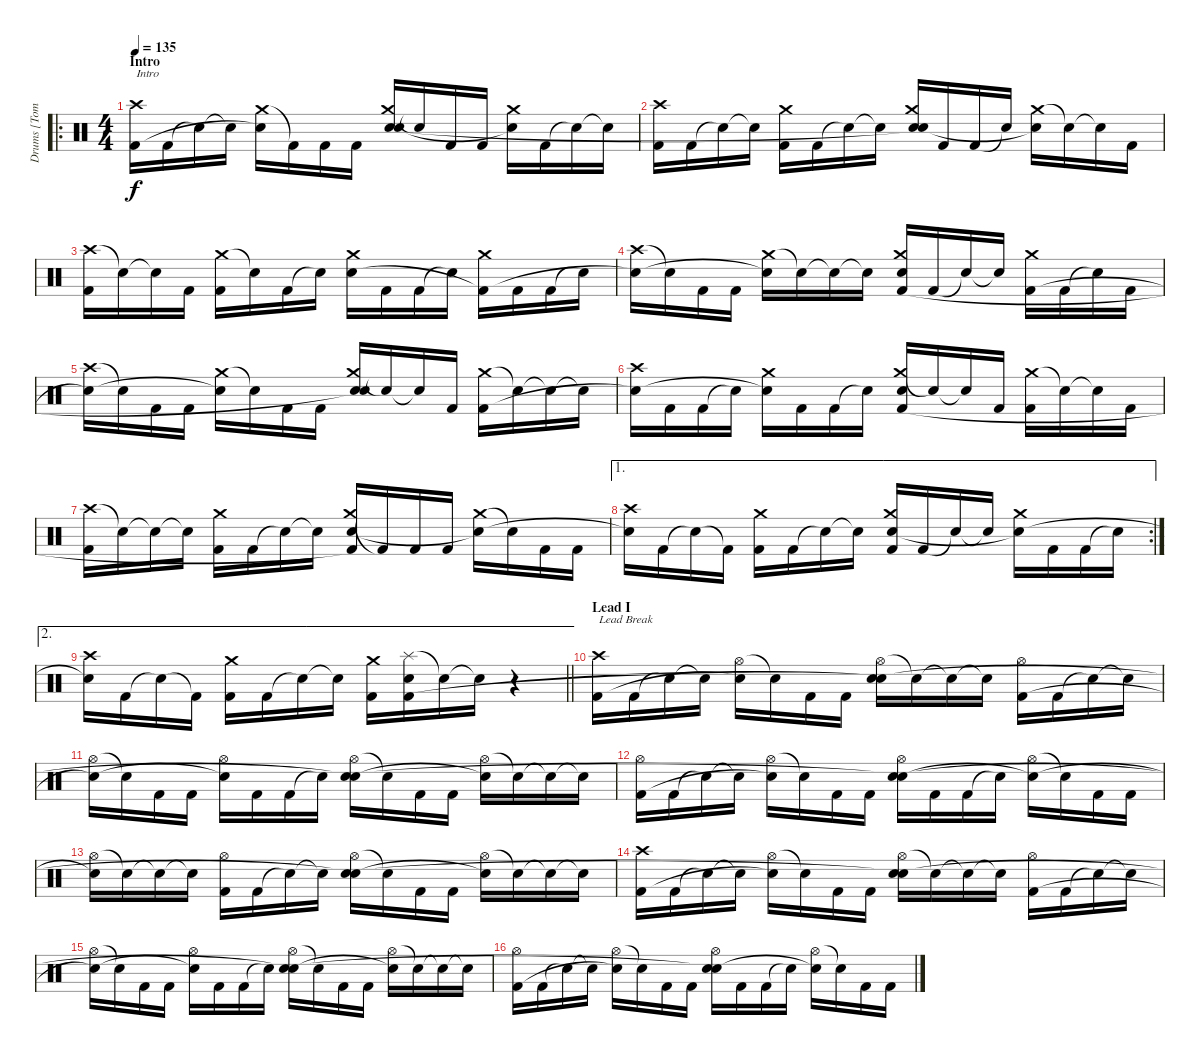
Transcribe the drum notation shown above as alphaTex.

\track ("Drums [Tomas Haake]" "Drums [Tom") {instrument percussion}
\staff {score}
\articulation defaults
\ro
\ts (4 4)
\section ("" "Intro")
\tempo 135
\clef neutral
\ks c
("Crash high (hit)" "Kick (hit) 2").16{txt "Intro" dy f} "Kick (hit) 2".16 "Snare (hit)"{t}.16 "Snare (hit)"{t}.16 ("Crash medium (hit)" "Snare (hit)"{t}).16 "Kick (hit) 2"{t}.16 "Kick (hit) 2".16 "Kick (hit) 2".16 ("Crash medium (hit)" "Electric Snare (hit)" "Snare (hit)").16 "Snare (hit)"{t}.16 "Kick (hit) 2".16 "Kick (hit) 2".16 ("Crash medium (hit)" "Snare (hit)"{t}).16 "Kick (hit) 2".16 "Snare (hit)"{t}.16 "Snare (hit)"{t}.16 |
("Crash high (hit)" "Kick (hit) 2").16 "Kick (hit) 2".16 "Snare (hit)"{t}.16 "Snare (hit)"{t}.16 ("Crash medium (hit)" "Kick (hit) 2").16 "Kick (hit) 2".16 "Snare (hit)"{t}.16 "Snare (hit)"{t}.16 ("Crash medium (hit)" "Electric Snare (hit)" "Snare (hit)"{t}).16 "Kick (hit) 2".16 "Kick (hit) 2".16 "Snare (hit)"{t}.16 ("Crash medium (hit)" "Snare (hit)"{t}).16 "Snare (hit)"{t}.16 "Snare (hit)"{t}.16 "Kick (hit) 2".16 |
("Crash high (hit)" "Kick (hit) 2").16 "Snare (hit)"{t}.16 "Snare (hit)"{t}.16 "Kick (hit) 2".16 ("Crash medium (hit)" "Kick (hit) 2").16 "Snare (hit)"{t}.16 "Kick (hit) 2".16 "Snare (hit)"{t}.16 ("Crash medium (hit)" "Electric Snare (hit)").16 "Kick (hit) 2".16 "Kick (hit) 2".16 "Snare (hit)"{t}.16 ("Crash medium (hit)" "Kick (hit) 2"{t}).16 "Kick (hit) 2".16 "Kick (hit) 2".16 "Snare (hit)"{t}.16 |
("Crash high (hit)" "Snare (hit)"{t}).16 "Snare (hit)"{t}.16 "Kick (hit) 2".16 "Kick (hit) 2".16 ("Crash medium (hit)" "Snare (hit)"{t}).16 "Snare (hit)"{t}.16 "Snare (hit)"{t}.16 "Snare (hit)"{t}.16 ("Crash medium (hit)" "Electric Snare (hit)" "Kick (hit) 2").16 "Kick (hit) 2".16 "Snare (hit)"{t}.16 "Snare (hit)"{t}.16 ("Crash medium (hit)" "Kick (hit) 2").16 "Kick (hit) 2".16 "Snare (hit)"{t}.16 "Kick (hit) 2".16 |
("Crash high (hit)" "Snare (hit)"{t}).16 "Snare (hit)"{t}.16 "Kick (hit) 2".16 "Kick (hit) 2".16 ("Crash medium (hit)" "Snare (hit)"{t}).16 "Snare (hit)"{t}.16 "Kick (hit) 2".16 "Kick (hit) 2".16 ("Crash medium (hit)" "Electric Snare (hit)" "Snare (hit)"{t}).16 "Snare (hit)"{t}.16 "Snare (hit)"{t}.16 "Kick (hit) 2".16 ("Crash medium (hit)" "Kick (hit) 2").16 "Snare (hit)"{t}.16 "Snare (hit)"{t}.16 "Snare (hit)"{t}.16 |
("Crash high (hit)" "Snare (hit)"{t}).16 "Kick (hit) 2".16 "Kick (hit) 2".16 "Snare (hit)"{t}.16 ("Crash medium (hit)" "Snare (hit)"{t}).16 "Kick (hit) 2".16 "Kick (hit) 2".16 "Snare (hit)"{t}.16 ("Crash medium (hit)" "Electric Snare (hit)" "Kick (hit) 2").16 "Snare (hit)"{t}.16 "Snare (hit)"{t}.16 "Kick (hit) 2".16 ("Crash medium (hit)" "Kick (hit) 2").16 "Snare (hit)"{t}.16 "Snare (hit)"{t}.16 "Kick (hit) 2".16 |
("Crash high (hit)" "Kick (hit) 2").16 "Snare (hit)"{t}.16 "Snare (hit)"{t}.16 "Snare (hit)"{t}.16 ("Crash medium (hit)" "Kick (hit) 2").16 "Kick (hit) 2".16 "Snare (hit)"{t}.16 "Snare (hit)"{t}.16 ("Crash medium (hit)" "Electric Snare (hit)" "Kick (hit) 2"{t}).16 "Kick (hit) 2"{t}.16 "Kick (hit) 2".16 "Kick (hit) 2".16 ("Crash medium (hit)" "Snare (hit)"{t}).16 "Snare (hit)"{t}.16 "Kick (hit) 2".16 "Kick (hit) 2".16 |
\ae 1
\rc 2
("Crash high (hit)" "Snare (hit)"{t}).16 "Kick (hit) 2".16 "Snare (hit)"{t}.16 "Kick (hit) 2"{t}.16 ("Crash medium (hit)" "Kick (hit) 2").16 "Kick (hit) 2".16 "Snare (hit)"{t}.16 "Snare (hit)"{t}.16 ("Crash medium (hit)" "Electric Snare (hit)" "Kick (hit) 2").16 "Kick (hit) 2".16 "Snare (hit)"{t}.16 "Snare (hit)"{t}.16 ("Crash medium (hit)" "Snare (hit)"{t}).16 "Kick (hit) 2".16 "Kick (hit) 2".16 "Snare (hit)"{t}.16 |
\ae 2
\barLineRight lightlight
("Crash high (hit)" "Snare (hit)"{t}).16 "Kick (hit) 2".16 "Snare (hit)"{t}.16 "Kick (hit) 2"{t}.16 ("Crash medium (hit)" "Kick (hit) 2").16 "Kick (hit) 2".16 "Snare (hit)"{t}.16 "Snare (hit)"{t}.16 ("Crash medium (hit)" "Kick (hit) 2").16 ("Splash (hit)" "Electric Snare (hit)" "Kick (hit) 2").16 "Snare (hit)"{t}.16 "Snare (hit)"{t}.16 r.4 |
\section ("" "Lead I")
("Crash high (hit)" "Kick (hit) 2").16{txt "Lead Break"} "Kick (hit) 2".16 "Snare (hit)"{t}.16 "Snare (hit)"{t}.16 ("Hi-Hat (open)" "Snare (hit)"{t}).16 "Snare (hit)"{t}.16 "Kick (hit) 2".16 "Kick (hit) 2".16 ("Hi-Hat (open)" "Electric Snare (hit)" "Snare (hit)"{t}).16 "Snare (hit)"{t}.16 "Snare (hit)"{t}.16 "Snare (hit)"{t}.16 ("Hi-Hat (open)" "Kick (hit) 2").16 "Kick (hit) 2".16 "Snare (hit)"{t}.16 "Snare (hit)"{t}.16 |
("Hi-Hat (open)" "Snare (hit)"{t}).16 "Snare (hit)"{t}.16 "Kick (hit) 2".16 "Kick (hit) 2".16 ("Hi-Hat (open)" "Snare (hit)"{t}).16 "Kick (hit) 2".16 "Kick (hit) 2".16 "Snare (hit)"{t}.16 ("Hi-Hat (open)" "Electric Snare (hit)" "Snare (hit)"{t}).16 "Snare (hit)"{t}.16 "Kick (hit) 2".16 "Kick (hit) 2".16 ("Hi-Hat (open)" "Snare (hit)"{t}).16 "Snare (hit)"{t}.16 "Snare (hit)"{t}.16 "Snare (hit)"{t}.16 |
("Hi-Hat (open)" "Kick (hit) 2").16 "Kick (hit) 2".16 "Snare (hit)"{t}.16 "Snare (hit)"{t}.16 ("Hi-Hat (open)" "Snare (hit)"{t}).16 "Snare (hit)"{t}.16 "Kick (hit) 2".16 "Kick (hit) 2".16 ("Hi-Hat (open)" "Electric Snare (hit)" "Snare (hit)"{t}).16 "Kick (hit) 2".16 "Kick (hit) 2".16 "Snare (hit)"{t}.16 ("Hi-Hat (open)" "Snare (hit)"{t}).16 "Snare (hit)"{t}.16 "Kick (hit) 2".16 "Kick (hit) 2".16 |
("Hi-Hat (open)" "Snare (hit)"{t}).16 "Snare (hit)"{t}.16 "Snare (hit)"{t}.16 "Snare (hit)"{t}.16 ("Hi-Hat (open)" "Kick (hit) 2").16 "Kick (hit) 2".16 "Snare (hit)"{t}.16 "Snare (hit)"{t}.16 ("Hi-Hat (open)" "Electric Snare (hit)" "Snare (hit)"{t}).16 "Snare (hit)"{t}.16 "Kick (hit) 2".16 "Kick (hit) 2".16 ("Hi-Hat (open)" "Snare (hit)"{t}).16 "Snare (hit)"{t}.16 "Snare (hit)"{t}.16 "Snare (hit)"{t}.16 |
("Crash high (hit)" "Kick (hit) 2").16 "Kick (hit) 2".16 "Snare (hit)"{t}.16 "Snare (hit)"{t}.16 ("Hi-Hat (open)" "Snare (hit)"{t}).16 "Snare (hit)"{t}.16 "Kick (hit) 2".16 "Kick (hit) 2".16 ("Hi-Hat (open)" "Electric Snare (hit)" "Snare (hit)"{t}).16 "Snare (hit)"{t}.16 "Snare (hit)"{t}.16 "Snare (hit)"{t}.16 ("Hi-Hat (open)" "Kick (hit) 2").16 "Kick (hit) 2".16 "Snare (hit)"{t}.16 "Snare (hit)"{t}.16 |
("Hi-Hat (open)" "Snare (hit)"{t}).16 "Snare (hit)"{t}.16 "Kick (hit) 2".16 "Kick (hit) 2".16 ("Hi-Hat (open)" "Snare (hit)"{t}).16 "Kick (hit) 2".16 "Kick (hit) 2".16 "Snare (hit)"{t}.16 ("Hi-Hat (open)" "Electric Snare (hit)" "Snare (hit)"{t}).16 "Snare (hit)"{t}.16 "Kick (hit) 2".16 "Kick (hit) 2".16 ("Hi-Hat (open)" "Snare (hit)"{t}).16 "Snare (hit)"{t}.16 "Snare (hit)"{t}.16 "Snare (hit)"{t}.16 |
("Hi-Hat (open)" "Kick (hit) 2").16 "Kick (hit) 2".16 "Snare (hit)"{t}.16 "Snare (hit)"{t}.16 ("Hi-Hat (open)" "Snare (hit)"{t}).16 "Snare (hit)"{t}.16 "Kick (hit) 2".16 "Kick (hit) 2".16 ("Hi-Hat (open)" "Electric Snare (hit)" "Snare (hit)"{t}).16 "Kick (hit) 2".16 "Kick (hit) 2".16 "Snare (hit)"{t}.16 ("Hi-Hat (open)" "Snare (hit)"{t}).16 "Snare (hit)"{t}.16 "Kick (hit) 2".16 "Kick (hit) 2".16
